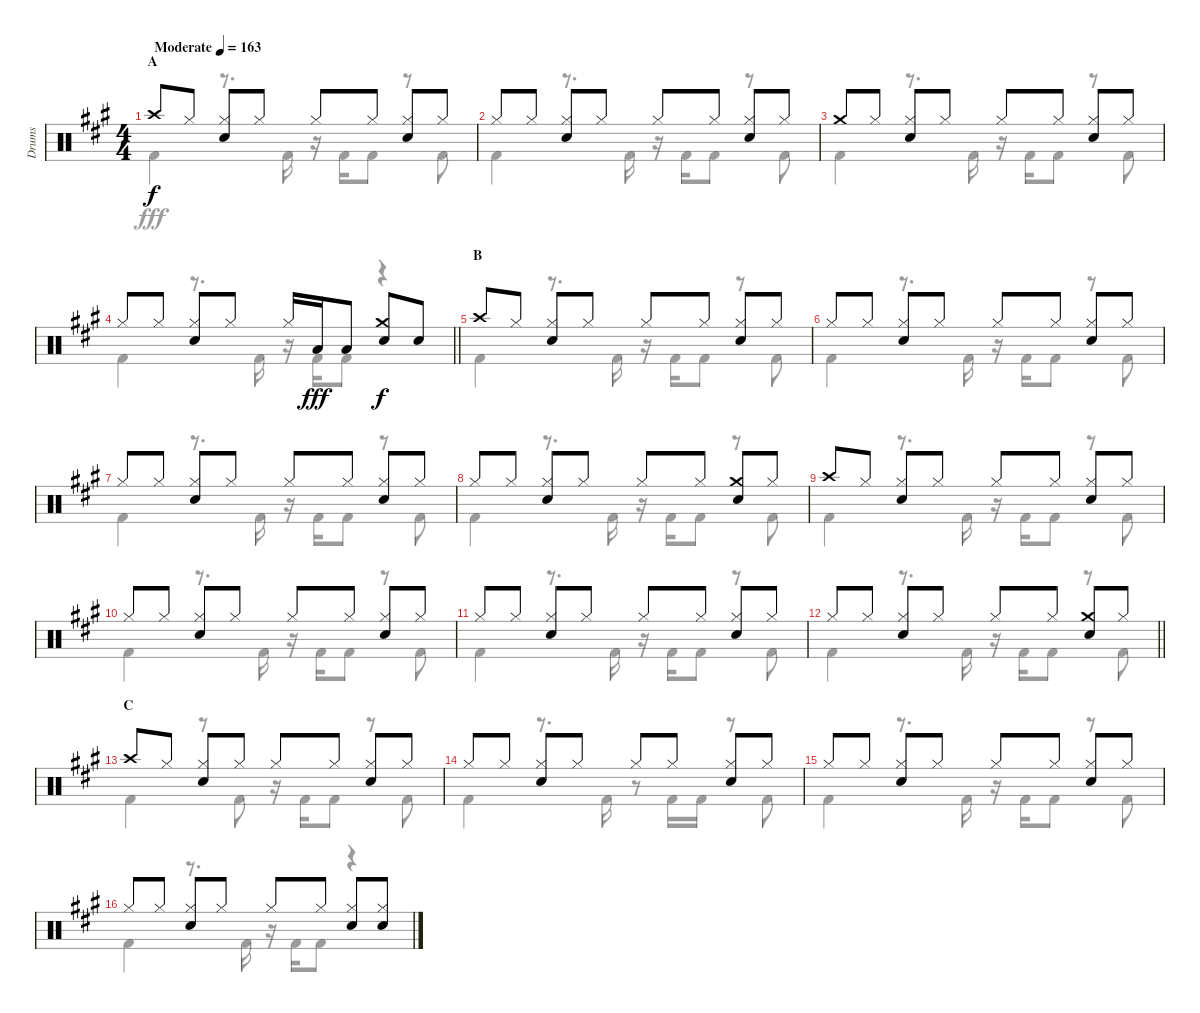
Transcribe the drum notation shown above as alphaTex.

\track ("Drums" "Drums") {instrument percussion}
\staff {score}
\articulation defaults
\voice
\ts (4 4)
\section ("" "A")
\tempo (163 "Moderate")
\clef neutral
\ks a "Crash high (hit)".8{dy f} "Hi-Hat (closed)".8
("Hi-Hat (closed)" "Snare (hit) 2").8 "Hi-Hat (closed)".8 "Hi-Hat (closed)".8 "Hi-Hat (closed)".8 ("Hi-Hat (closed)" "Snare (hit) 2").8 "Hi-Hat (closed)".8 |
"Hi-Hat (closed)".8 "Hi-Hat (closed)".8 ("Hi-Hat (closed)" "Snare (hit) 2").8 "Hi-Hat (closed)".8 "Hi-Hat (closed)".8 "Hi-Hat (closed)".8 ("Hi-Hat (closed)" "Snare (hit) 2").8 "Hi-Hat (closed)".8 |
"Crash medium (hit)".8 "Hi-Hat (closed)".8 ("Hi-Hat (closed)" "Snare (hit) 2").8 "Hi-Hat (closed)".8 "Hi-Hat (closed)".8 "Hi-Hat (closed)".8 ("Hi-Hat (closed)" "Snare (hit) 2").8 "Hi-Hat (closed)".8 |
\barLineRight lightlight "Hi-Hat (closed)".8 "Hi-Hat (closed)".8
("Hi-Hat (closed)" "Snare (hit) 2").8 "Hi-Hat (closed)".8 "Hi-Hat (closed)".16 "Low Tom (hit)".16{dy fff} "Low Tom (hit)".8 ("Crash medium (hit)" "Snare (hit) 2").8{dy f} "Snare (hit) 2".8 |
\section ("" "B")
"Crash high (hit)".8 "Hi-Hat (closed)".8 ("Hi-Hat (closed)" "Snare (hit) 2").8 "Hi-Hat (closed)".8 "Hi-Hat (closed)".8 "Hi-Hat (closed)".8 ("Hi-Hat (closed)" "Snare (hit) 2").8 "Hi-Hat (closed)".8 |
"Hi-Hat (closed)".8 "Hi-Hat (closed)".8 ("Hi-Hat (closed)" "Snare (hit) 2").8 "Hi-Hat (closed)".8 "Hi-Hat (closed)".8 "Hi-Hat (closed)".8 ("Hi-Hat (closed)" "Snare (hit) 2").8 "Hi-Hat (closed)".8 |
"Hi-Hat (closed)".8 "Hi-Hat (closed)".8 ("Hi-Hat (closed)" "Snare (hit) 2").8 "Hi-Hat (closed)".8 "Hi-Hat (closed)".8 "Hi-Hat (closed)".8 ("Hi-Hat (closed)" "Snare (hit) 2").8 "Hi-Hat (closed)".8 |
"Hi-Hat (closed)".8 "Hi-Hat (closed)".8 ("Hi-Hat (closed)" "Snare (hit) 2").8 "Hi-Hat (closed)".8 "Hi-Hat (closed)".8 "Hi-Hat (closed)".8 ("Crash medium (hit)" "Snare (hit) 2").8 "Hi-Hat (closed)".8 |
"Crash high (hit)".8 "Hi-Hat (closed)".8 ("Hi-Hat (closed)" "Snare (hit) 2").8 "Hi-Hat (closed)".8 "Hi-Hat (closed)".8 "Hi-Hat (closed)".8 ("Hi-Hat (closed)" "Snare (hit) 2").8 "Hi-Hat (closed)".8 |
"Hi-Hat (closed)".8 "Hi-Hat (closed)".8 ("Hi-Hat (closed)" "Snare (hit) 2").8 "Hi-Hat (closed)".8 "Hi-Hat (closed)".8 "Hi-Hat (closed)".8 ("Hi-Hat (closed)" "Snare (hit) 2").8 "Hi-Hat (closed)".8 |
"Hi-Hat (closed)".8 "Hi-Hat (closed)".8 ("Hi-Hat (closed)" "Snare (hit) 2").8 "Hi-Hat (closed)".8 "Hi-Hat (closed)".8 "Hi-Hat (closed)".8 ("Hi-Hat (closed)" "Snare (hit) 2").8 "Hi-Hat (closed)".8 |
\barLineRight lightlight "Hi-Hat (closed)".8 "Hi-Hat (closed)".8
("Hi-Hat (closed)" "Snare (hit) 2").8 "Hi-Hat (closed)".8 "Hi-Hat (closed)".8 "Hi-Hat (closed)".8 ("Crash medium (hit)" "Snare (hit) 2").8 "Hi-Hat (closed)".8 |
\section ("" "C")
"Crash high (hit)".8 "Hi-Hat (closed)".8 ("Hi-Hat (closed)" "Snare (hit) 2").8 "Hi-Hat (closed)".8 "Hi-Hat (closed)".8 "Hi-Hat (closed)".8 ("Hi-Hat (closed)" "Snare (hit) 2").8 "Hi-Hat (closed)".8 |
"Hi-Hat (closed)".8 "Hi-Hat (closed)".8 ("Hi-Hat (closed)" "Snare (hit) 2").8 "Hi-Hat (closed)".8 "Hi-Hat (closed)".8 "Hi-Hat (closed)".8 ("Hi-Hat (closed)" "Snare (hit) 2").8 "Hi-Hat (closed)".8 |
"Hi-Hat (closed)".8 "Hi-Hat (closed)".8 ("Hi-Hat (closed)" "Snare (hit) 2").8 "Hi-Hat (closed)".8 "Hi-Hat (closed)".8 "Hi-Hat (closed)".8 ("Hi-Hat (closed)" "Snare (hit) 2").8 "Hi-Hat (closed)".8 |
"Hi-Hat (closed)".8 "Hi-Hat (closed)".8 ("Hi-Hat (closed)" "Snare (hit) 2").8 "Hi-Hat (closed)".8 "Hi-Hat (closed)".8 "Hi-Hat (closed)".8 ("Hi-Hat (closed)" "Snare (hit) 2").8 ("Hi-Hat (closed)" "Snare (hit) 2").8
\voice
\clef neutral
\ottava regular
\simile none
\ks a "Kick (hit) 2".4{dy fff}
r.8{d} "Kick (hit) 2".16 r.16 "Kick (hit) 2".16 "Kick (hit) 2".8 r.8 "Kick (hit) 2".8 |
"Kick (hit) 2".4 r.8{d} "Kick (hit) 2".16 r.16 "Kick (hit) 2".16 "Kick (hit) 2".8 r.8 "Kick (hit) 2".8 |
"Kick (hit) 2".4 r.8{d} "Kick (hit) 2".16 r.16 "Kick (hit) 2".16 "Kick (hit) 2".8 r.8 "Kick (hit) 2".8 |
\barLineRight lightlight "Kick (hit) 2".4
r.8{d} "Kick (hit) 2".16 r.16 "Kick (hit) 2".16 "Kick (hit) 2".8 r.4 |
"Kick (hit) 2".4 r.8{d} "Kick (hit) 2".16 r.16 "Kick (hit) 2".16 "Kick (hit) 2".8 r.8 "Kick (hit) 2".8 |
"Kick (hit) 2".4 r.8{d} "Kick (hit) 2".16 r.16 "Kick (hit) 2".16 "Kick (hit) 2".8 r.8 "Kick (hit) 2".8 |
"Kick (hit) 2".4 r.8{d} "Kick (hit) 2".16 r.16 "Kick (hit) 2".16 "Kick (hit) 2".8 r.8 "Kick (hit) 2".8 |
"Kick (hit) 2".4 r.8{d} "Kick (hit) 2".16 r.16 "Kick (hit) 2".16 "Kick (hit) 2".8 r.8 "Kick (hit) 2".8 |
"Kick (hit) 2".4 r.8{d} "Kick (hit) 2".16 r.16 "Kick (hit) 2".16 "Kick (hit) 2".8 r.8 "Kick (hit) 2".8 |
"Kick (hit) 2".4 r.8{d} "Kick (hit) 2".16 r.16 "Kick (hit) 2".16 "Kick (hit) 2".8 r.8 "Kick (hit) 2".8 |
"Kick (hit) 2".4 r.8{d} "Kick (hit) 2".16 r.16 "Kick (hit) 2".16 "Kick (hit) 2".8 r.8 "Kick (hit) 2".8 |
\barLineRight lightlight "Kick (hit) 2".4
r.8{d} "Kick (hit) 2".16 r.16 "Kick (hit) 2".16 "Kick (hit) 2".8 r.8 "Kick (hit) 2".8 |
"Kick (hit) 2".4 r.8 "Kick (hit) 2".8 r.16 "Kick (hit) 2".16 "Kick (hit) 2".8 r.8 "Kick (hit) 2".8 |
"Kick (hit) 2".4 r.8{d} "Kick (hit) 2".16 r.8 "Kick (hit) 2".16 "Kick (hit) 2".16 r.8 "Kick (hit) 2".8 |
"Kick (hit) 2".4 r.8{d} "Kick (hit) 2".16 r.16 "Kick (hit) 2".16 "Kick (hit) 2".8 r.8 "Kick (hit) 2".8 |
"Kick (hit) 2".4 r.8{d} "Kick (hit) 2".16 r.16 "Kick (hit) 2".16 "Kick (hit) 2".8 r.4
